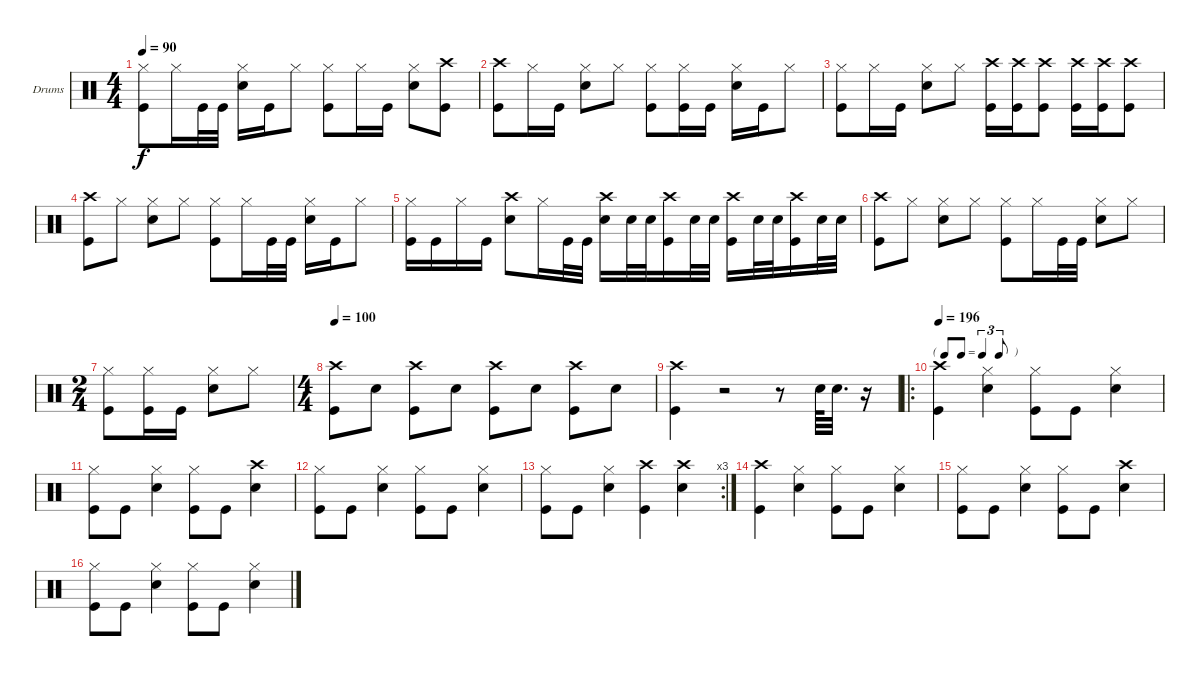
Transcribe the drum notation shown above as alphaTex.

\bracketExtendMode groupsimilarinstruments
\firstSystemTrackNameOrientation horizontal
\otherSystemsTrackNameOrientation horizontal
\track ("Drums" "Drums") {instrument percussion}
\staff {score}
\articulation defaults
\ts (4 4)
\tempo 90
\clef neutral
\ks c
("Hi-Hat (closed)" "Kick (hit)").8{dy f} "Hi-Hat (closed)".16 "Kick (hit)".32 "Kick (hit)".32 ("Snare (hit) 2" "Hi-Hat (closed)").16 "Kick (hit)".16 "Hi-Hat (closed)".8 ("Hi-Hat (closed)" "Kick (hit)").8 "Hi-Hat (closed)".16 "Kick (hit)".16 ("Snare (hit) 2" "Hi-Hat (closed)").8 ("Crash high (hit)" "Kick (hit)").8 |
("Kick (hit)" "Crash high (hit)").8 "Hi-Hat (closed)".16 "Kick (hit)".16 ("Snare (hit) 2" "Hi-Hat (closed)").8 "Hi-Hat (closed)".8 ("Hi-Hat (closed)" "Kick (hit)").8 ("Hi-Hat (closed)" "Kick (hit)").16 "Kick (hit)".16 ("Snare (hit) 2" "Hi-Hat (closed)").16 "Kick (hit)".16 "Hi-Hat (closed)".8 |
("Hi-Hat (closed)" "Kick (hit)").8 "Hi-Hat (closed)".16 "Kick (hit)".16 ("Snare (hit) 2" "Hi-Hat (closed)").8 "Hi-Hat (closed)".8 ("Kick (hit)" "Crash high (hit)").16 ("Kick (hit)" "Crash high (hit)").16 ("Kick (hit)" "Crash high (hit)").8 ("Kick (hit)" "Crash high (hit)").16 ("Kick (hit)" "Crash high (hit)").16 ("Kick (hit)" "Crash high (hit)").8 |
("Crash high (hit)" "Kick (hit)").8 "Hi-Hat (closed)".8 ("Snare (hit) 2" "Hi-Hat (closed)").8 "Hi-Hat (closed)".8 ("Hi-Hat (closed)" "Kick (hit)").8 "Hi-Hat (closed)".16 "Kick (hit)".32 "Kick (hit)".32 ("Snare (hit) 2" "Hi-Hat (closed)").16 "Kick (hit)".16 "Hi-Hat (closed)".8 |
("Hi-Hat (closed)" "Kick (hit)").16 "Kick (hit)".16 "Hi-Hat (closed)".16 "Kick (hit)".16 ("Crash high (hit)" "Snare (hit) 2").8 "Hi-Hat (closed)".16 "Kick (hit)".32 "Kick (hit)".32 ("Snare (hit) 2" "Crash high (hit)").16 "Snare (hit) 2".32 "Snare (hit) 2".32 ("Crash high (hit)" "Kick (hit)").16 "Snare (hit) 2".32 "Snare (hit) 2".32 ("Crash high (hit)" "Kick (hit)").16 "Snare (hit) 2".32 "Snare (hit) 2".32 ("Crash high (hit)" "Kick (hit)").16 "Snare (hit) 2".32 "Snare (hit) 2".32 |
("Kick (hit)" "Crash high (hit)").8 "Hi-Hat (closed)".8 ("Snare (hit) 2" "Hi-Hat (closed)").8 "Hi-Hat (closed)".8 ("Hi-Hat (closed)" "Kick (hit)").8 "Hi-Hat (closed)".16 "Kick (hit)".32 "Kick (hit)".32 ("Hi-Hat (closed)" "Snare (hit) 2").8 "Hi-Hat (closed)".8 |
\ts (2 4)
\beaming (8 2 2)
("Kick (hit)" "Hi-Hat (closed)").8 ("Kick (hit)" "Hi-Hat (closed)").16 "Kick (hit)".16 ("Snare (hit) 2" "Hi-Hat (closed)").8 "Hi-Hat (closed)".8 |
\ts (4 4)
\beaming (8 2 2 2 2)
\tempo 100
("Kick (hit)" "Crash high (hit)").8 "Snare (hit) 2".8 ("Kick (hit)" "Crash high (hit)").8 "Snare (hit) 2".8 ("Kick (hit)" "Crash high (hit)").8 "Snare (hit) 2".8 ("Kick (hit)" "Crash high (hit)").8 "Snare (hit) 2".8 |
("Kick (hit)" "Crash high (hit)").4 r.2 r.8 "Snare (hit) 2".64 "Snare (hit) 2".32{d} r.16 |
\ro
\tf triplet8th
\tempo 196
("Kick (hit)" "Crash high (hit)").4 ("Hi-Hat (closed)" "Snare (hit) 2").4 ("Hi-Hat (closed)" "Kick (hit)").8 "Kick (hit)".8 ("Snare (hit) 2" "Hi-Hat (closed)").4 |
("Hi-Hat (closed)" "Kick (hit)").8 "Kick (hit)".8 ("Snare (hit) 2" "Hi-Hat (closed)").4 ("Hi-Hat (closed)" "Kick (hit)").8 "Kick (hit)".8 ("Crash high (hit)" "Snare (hit) 2").4 |
("Hi-Hat (closed)" "Kick (hit)").8 "Kick (hit)".8 ("Snare (hit) 2" "Hi-Hat (closed)").4 ("Hi-Hat (closed)" "Kick (hit)").8 "Kick (hit)".8 ("Snare (hit) 2" "Hi-Hat (closed)").4 |
\rc 3
("Hi-Hat (closed)" "Kick (hit)").8 "Kick (hit)".8 ("Snare (hit) 2" "Hi-Hat (closed)").4 ("Crash high (hit)" "Kick (hit)").4 ("Crash high (hit)" "Snare (hit) 2").4 |
("Kick (hit)" "Crash high (hit)").4 ("Hi-Hat (closed)" "Snare (hit) 2").4 ("Hi-Hat (closed)" "Kick (hit)").8 "Kick (hit)".8 ("Snare (hit) 2" "Hi-Hat (closed)").4 |
("Hi-Hat (closed)" "Kick (hit)").8 "Kick (hit)".8 ("Snare (hit) 2" "Hi-Hat (closed)").4 ("Hi-Hat (closed)" "Kick (hit)").8 "Kick (hit)".8 ("Crash high (hit)" "Snare (hit) 2").4 |
("Hi-Hat (closed)" "Kick (hit)").8 "Kick (hit)".8 ("Snare (hit) 2" "Hi-Hat (closed)").4 ("Hi-Hat (closed)" "Kick (hit)").8 "Kick (hit)".8 ("Snare (hit) 2" "Hi-Hat (closed)").4
